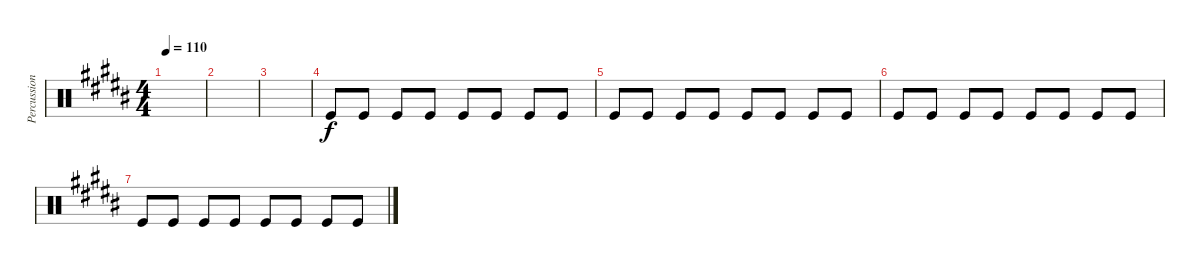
\track ("Percussions" "Percussion") {instrument percussion}
\staff {score}
\articulation defaults
\ts (4 4)
\tempo 110
\clef neutral
\ks b
|
|
|
"Kick (hit)".8 "Kick (hit)".8 "Kick (hit)".8 "Kick (hit)".8 "Kick (hit)".8 "Kick (hit)".8 "Kick (hit)".8 "Kick (hit)".8 |
"Kick (hit)".8 "Kick (hit)".8 "Kick (hit)".8 "Kick (hit)".8 "Kick (hit)".8 "Kick (hit)".8 "Kick (hit)".8 "Kick (hit)".8 |
"Kick (hit)".8 "Kick (hit)".8 "Kick (hit)".8 "Kick (hit)".8 "Kick (hit)".8 "Kick (hit)".8 "Kick (hit)".8 "Kick (hit)".8 |
"Kick (hit)".8 "Kick (hit)".8 "Kick (hit)".8 "Kick (hit)".8 "Kick (hit)".8 "Kick (hit)".8 "Kick (hit)".8 "Kick (hit)".8
